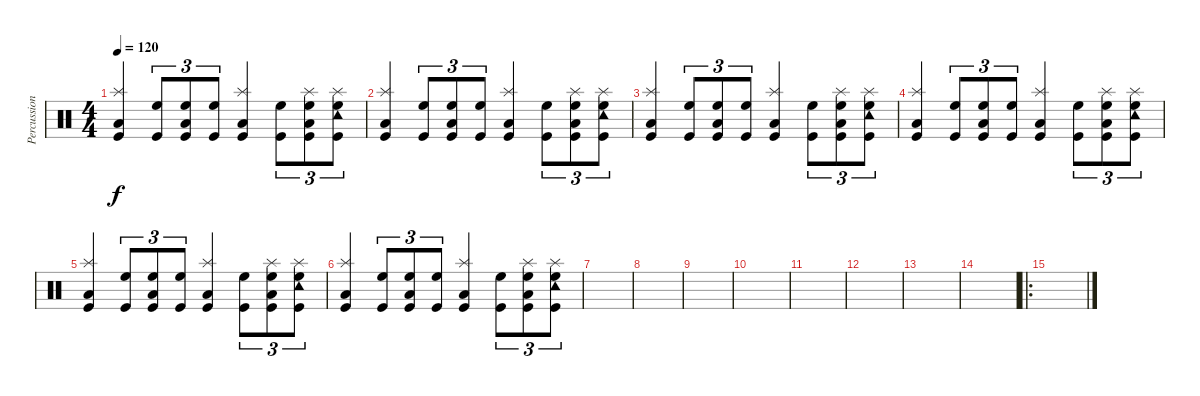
\track ("Percussion" "Percussion") {instrument percussion}
\staff {score}
\articulation defaults
\ts (4 4)
\tempo 120
\clef neutral
\ks c
("Low Tom (hit)" "Splash (hit)" "Kick (hit)").4{dy f} ("High Floor Tom (hit)" "Kick (hit)").8{tu (3 2)} ("Low Tom (hit)" "High Floor Tom (hit)" "Kick (hit)").8{tu (3 2)} ("High Floor Tom (hit)" "Kick (hit)").8{tu (3 2)} ("Splash (hit)" "Low Tom (hit)" "Kick (hit)").4 ("High Floor Tom (hit)" "Kick (hit)").8{tu (3 2)} ("Splash (hit)" "Low Tom (hit)" "High Floor Tom (hit)" "Kick (hit)").8{tu (3 2)} ("Tambourine (hit)" "High Floor Tom (hit)" "Splash (hit)" "Kick (hit)").8{tu (3 2)} |
("Low Tom (hit)" "Splash (hit)" "Kick (hit)").4 ("High Floor Tom (hit)" "Kick (hit)").8{tu (3 2)} ("Low Tom (hit)" "High Floor Tom (hit)" "Kick (hit)").8{tu (3 2)} ("High Floor Tom (hit)" "Kick (hit)").8{tu (3 2)} ("Splash (hit)" "Low Tom (hit)" "Kick (hit)").4 ("High Floor Tom (hit)" "Kick (hit)").8{tu (3 2)} ("Splash (hit)" "Low Tom (hit)" "High Floor Tom (hit)" "Kick (hit)").8{tu (3 2)} ("Tambourine (hit)" "High Floor Tom (hit)" "Splash (hit)" "Kick (hit)").8{tu (3 2)} |
("Low Tom (hit)" "Splash (hit)" "Kick (hit)").4 ("High Floor Tom (hit)" "Kick (hit)").8{tu (3 2)} ("Low Tom (hit)" "High Floor Tom (hit)" "Kick (hit)").8{tu (3 2)} ("High Floor Tom (hit)" "Kick (hit)").8{tu (3 2)} ("Splash (hit)" "Low Tom (hit)" "Kick (hit)").4 ("High Floor Tom (hit)" "Kick (hit)").8{tu (3 2)} ("Splash (hit)" "Low Tom (hit)" "High Floor Tom (hit)" "Kick (hit)").8{tu (3 2)} ("Tambourine (hit)" "High Floor Tom (hit)" "Splash (hit)" "Kick (hit)").8{tu (3 2)} |
("Low Tom (hit)" "Splash (hit)" "Kick (hit)").4 ("High Floor Tom (hit)" "Kick (hit)").8{tu (3 2)} ("Low Tom (hit)" "High Floor Tom (hit)" "Kick (hit)").8{tu (3 2)} ("High Floor Tom (hit)" "Kick (hit)").8{tu (3 2)} ("Splash (hit)" "Low Tom (hit)" "Kick (hit)").4 ("High Floor Tom (hit)" "Kick (hit)").8{tu (3 2)} ("Splash (hit)" "Low Tom (hit)" "High Floor Tom (hit)" "Kick (hit)").8{tu (3 2)} ("Tambourine (hit)" "High Floor Tom (hit)" "Splash (hit)" "Kick (hit)").8{tu (3 2)} |
("Low Tom (hit)" "Splash (hit)" "Kick (hit)").4 ("High Floor Tom (hit)" "Kick (hit)").8{tu (3 2)} ("Low Tom (hit)" "High Floor Tom (hit)" "Kick (hit)").8{tu (3 2)} ("High Floor Tom (hit)" "Kick (hit)").8{tu (3 2)} ("Splash (hit)" "Low Tom (hit)" "Kick (hit)").4 ("High Floor Tom (hit)" "Kick (hit)").8{tu (3 2)} ("Splash (hit)" "Low Tom (hit)" "High Floor Tom (hit)" "Kick (hit)").8{tu (3 2)} ("Tambourine (hit)" "High Floor Tom (hit)" "Splash (hit)" "Kick (hit)").8{tu (3 2)} |
("Low Tom (hit)" "Splash (hit)" "Kick (hit)").4 ("High Floor Tom (hit)" "Kick (hit)").8{tu (3 2)} ("Low Tom (hit)" "High Floor Tom (hit)" "Kick (hit)").8{tu (3 2)} ("High Floor Tom (hit)" "Kick (hit)").8{tu (3 2)} ("Splash (hit)" "Low Tom (hit)" "Kick (hit)").4 ("High Floor Tom (hit)" "Kick (hit)").8{tu (3 2)} ("Splash (hit)" "Low Tom (hit)" "High Floor Tom (hit)" "Kick (hit)").8{tu (3 2)} ("Tambourine (hit)" "High Floor Tom (hit)" "Splash (hit)" "Kick (hit)").8{tu (3 2)} |
|
|
|
|
|
|
|
|
\ro
